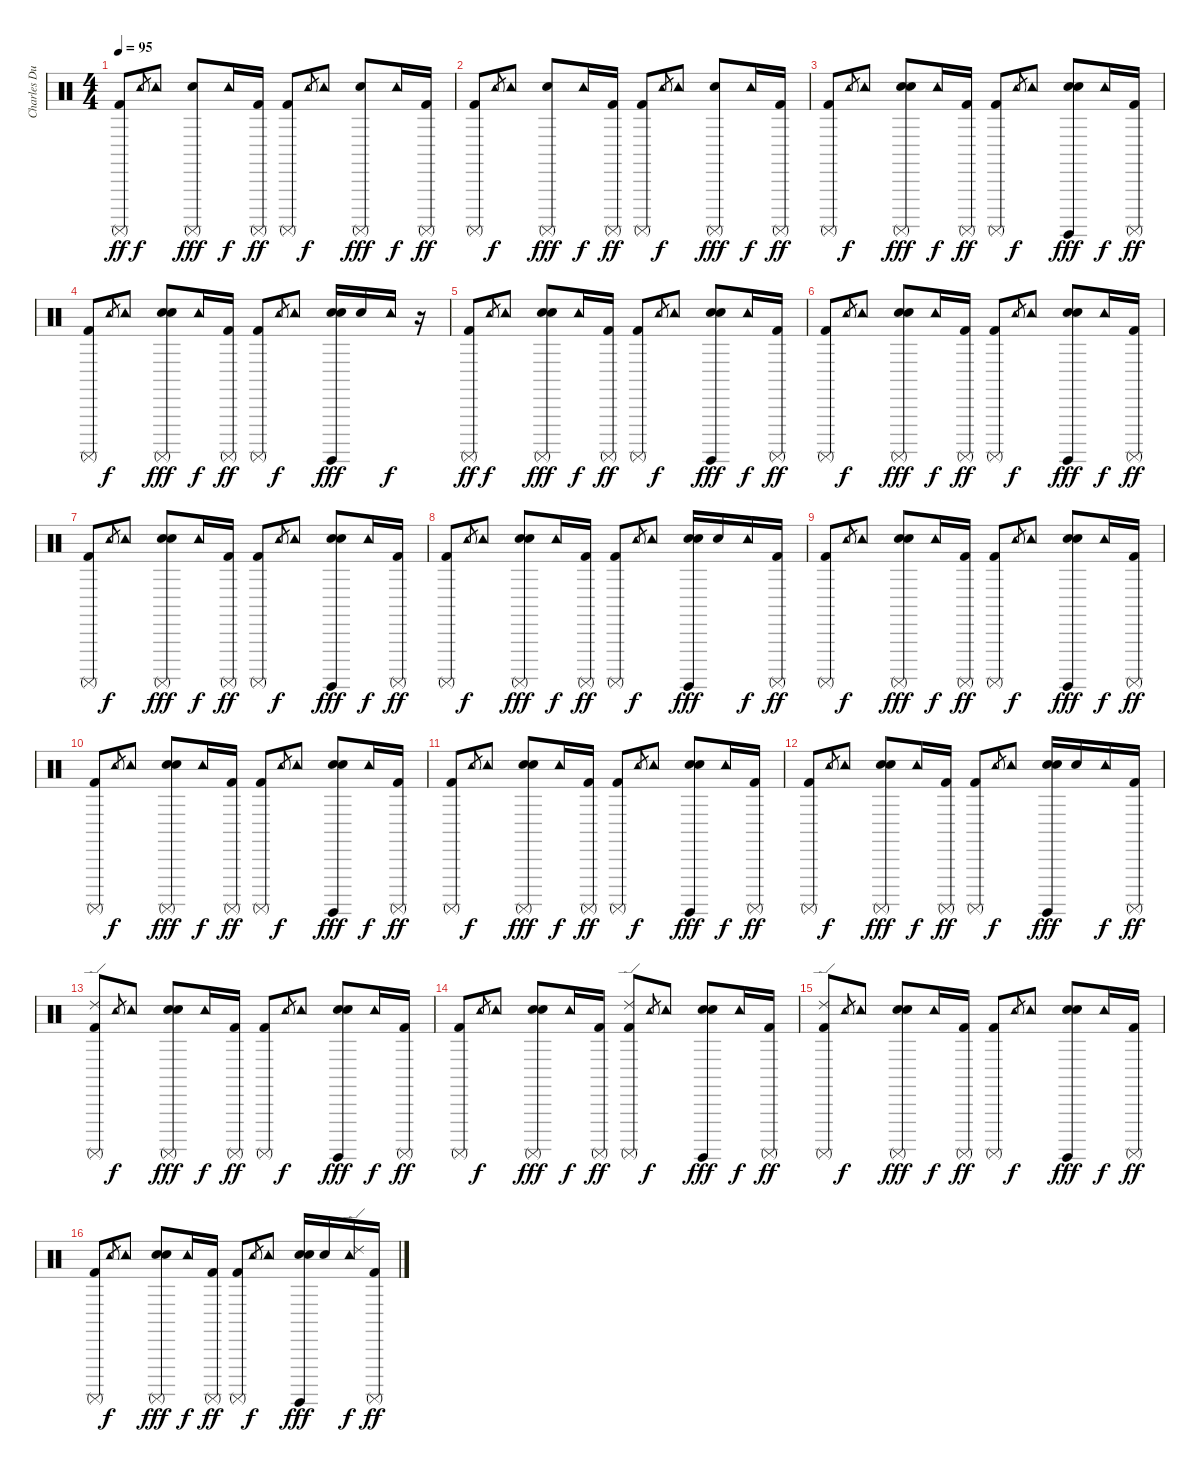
\track ("Charles Dubreuil - Batterie" "Charles Du") {instrument percussion}
\staff {score}
\articulation defaults
\ts (4 4)
\tempo 95
\clef neutral
\ks c
("Surdo (mute)" "Kick (hit) 2").8{dy ff} "Tambourine (hit)".8{gr dy f} "Tambourine (hit)".8 ("Electric Snare (hit)" "Surdo (mute)").8{dy fff} "Tambourine (hit)".16{dy f} ("Surdo (mute)" "Kick (hit) 2").16{dy ff} ("Surdo (mute)" "Kick (hit) 2").8 "Tambourine (hit)".8{gr dy f} "Tambourine (hit)".8 ("Electric Snare (hit)" "Surdo (mute)").8{dy fff} "Tambourine (hit)".16{dy f} ("Surdo (mute)" "Kick (hit) 2").16{dy ff} |
("Surdo (mute)" "Kick (hit) 2").8 "Tambourine (hit)".8{gr dy f} "Tambourine (hit)".8 ("Electric Snare (hit)" "Surdo (mute)").8{dy fff} "Tambourine (hit)".16{dy f} ("Surdo (mute)" "Kick (hit) 2").16{dy ff} ("Surdo (mute)" "Kick (hit) 2").8 "Tambourine (hit)".8{gr dy f} "Tambourine (hit)".8 ("Electric Snare (hit)" "Surdo (mute)").8{dy fff} "Tambourine (hit)".16{dy f} ("Surdo (mute)" "Kick (hit) 2").16{dy ff} |
("Surdo (mute)" "Kick (hit) 2").8 "Tambourine (hit)".8{gr dy f} "Tambourine (hit)".8 ("Hand Clap (hit)" "Electric Snare (hit)" "Surdo (mute)").8{dy fff} "Tambourine (hit)".16{dy f} ("Surdo (mute)" "Kick (hit) 2").16{dy ff} ("Surdo (mute)" "Kick (hit) 2").8 "Tambourine (hit)".8{gr dy f} "Tambourine (hit)".8 ("Hand Clap (hit)" "Electric Snare (hit)" "Surdo (hit)").8{dy fff} "Tambourine (hit)".16{dy f} ("Surdo (mute)" "Kick (hit) 2").16{dy ff} |
("Surdo (mute)" "Kick (hit) 2").8 "Tambourine (hit)".8{gr dy f} "Tambourine (hit)".8 ("Hand Clap (hit)" "Electric Snare (hit)" "Surdo (mute)").8{dy fff} "Tambourine (hit)".16{dy f} ("Surdo (mute)" "Kick (hit) 2").16{dy ff} ("Surdo (mute)" "Kick (hit) 2").8 "Tambourine (hit)".8{gr dy f} "Tambourine (hit)".8 ("Hand Clap (hit)" "Electric Snare (hit)" "Surdo (hit)").16{dy fff} "Electric Snare (hit)".16 "Tambourine (hit)".16{dy f} r.16 |
("Surdo (mute)" "Kick (hit) 2").8{dy ff} "Tambourine (hit)".8{gr dy f} "Tambourine (hit)".8 ("Hand Clap (hit)" "Electric Snare (hit)" "Surdo (mute)").8{dy fff} "Tambourine (hit)".16{dy f} ("Surdo (mute)" "Kick (hit) 2").16{dy ff} ("Surdo (mute)" "Kick (hit) 2").8 "Tambourine (hit)".8{gr dy f} "Tambourine (hit)".8 ("Hand Clap (hit)" "Electric Snare (hit)" "Surdo (hit)").8{dy fff} "Tambourine (hit)".16{dy f} ("Surdo (mute)" "Kick (hit) 2").16{dy ff} |
("Surdo (mute)" "Kick (hit) 2").8 "Tambourine (hit)".8{gr dy f} "Tambourine (hit)".8 ("Hand Clap (hit)" "Electric Snare (hit)" "Surdo (mute)").8{dy fff} "Tambourine (hit)".16{dy f} ("Surdo (mute)" "Kick (hit) 2").16{dy ff} ("Surdo (mute)" "Kick (hit) 2").8 "Tambourine (hit)".8{gr dy f} "Tambourine (hit)".8 ("Hand Clap (hit)" "Electric Snare (hit)" "Surdo (hit)").8{dy fff} "Tambourine (hit)".16{dy f} ("Surdo (mute)" "Kick (hit) 2").16{dy ff} |
("Surdo (mute)" "Kick (hit) 2").8 "Tambourine (hit)".8{gr dy f} "Tambourine (hit)".8 ("Hand Clap (hit)" "Electric Snare (hit)" "Surdo (mute)").8{dy fff} "Tambourine (hit)".16{dy f} ("Surdo (mute)" "Kick (hit) 2").16{dy ff} ("Surdo (mute)" "Kick (hit) 2").8 "Tambourine (hit)".8{gr dy f} "Tambourine (hit)".8 ("Hand Clap (hit)" "Electric Snare (hit)" "Surdo (hit)").8{dy fff} "Tambourine (hit)".16{dy f} ("Surdo (mute)" "Kick (hit) 2").16{dy ff} |
("Surdo (mute)" "Kick (hit) 2").8 "Tambourine (hit)".8{gr dy f} "Tambourine (hit)".8 ("Hand Clap (hit)" "Electric Snare (hit)" "Surdo (mute)").8{dy fff} "Tambourine (hit)".16{dy f} ("Surdo (mute)" "Kick (hit) 2").16{dy ff} ("Surdo (mute)" "Kick (hit) 2").8 "Tambourine (hit)".8{gr dy f} "Tambourine (hit)".8 ("Hand Clap (hit)" "Electric Snare (hit)" "Surdo (hit)").16{dy fff} "Electric Snare (hit)".16 "Tambourine (hit)".16{dy f} ("Surdo (mute)" "Kick (hit) 2").16{dy ff} |
("Surdo (mute)" "Kick (hit) 2").8 "Tambourine (hit)".8{gr dy f} "Tambourine (hit)".8 ("Hand Clap (hit)" "Electric Snare (hit)" "Surdo (mute)").8{dy fff} "Tambourine (hit)".16{dy f} ("Surdo (mute)" "Kick (hit) 2").16{dy ff} ("Surdo (mute)" "Kick (hit) 2").8 "Tambourine (hit)".8{gr dy f} "Tambourine (hit)".8 ("Hand Clap (hit)" "Electric Snare (hit)" "Surdo (hit)").8{dy fff} "Tambourine (hit)".16{dy f} ("Surdo (mute)" "Kick (hit) 2").16{dy ff} |
("Surdo (mute)" "Kick (hit) 2").8 "Tambourine (hit)".8{gr dy f} "Tambourine (hit)".8 ("Hand Clap (hit)" "Electric Snare (hit)" "Surdo (mute)").8{dy fff} "Tambourine (hit)".16{dy f} ("Surdo (mute)" "Kick (hit) 2").16{dy ff} ("Surdo (mute)" "Kick (hit) 2").8 "Tambourine (hit)".8{gr dy f} "Tambourine (hit)".8 ("Hand Clap (hit)" "Electric Snare (hit)" "Surdo (hit)").8{dy fff} "Tambourine (hit)".16{dy f} ("Surdo (mute)" "Kick (hit) 2").16{dy ff} |
("Surdo (mute)" "Kick (hit) 2").8 "Tambourine (hit)".8{gr dy f} "Tambourine (hit)".8 ("Hand Clap (hit)" "Electric Snare (hit)" "Surdo (mute)").8{dy fff} "Tambourine (hit)".16{dy f} ("Surdo (mute)" "Kick (hit) 2").16{dy ff} ("Surdo (mute)" "Kick (hit) 2").8 "Tambourine (hit)".8{gr dy f} "Tambourine (hit)".8 ("Hand Clap (hit)" "Electric Snare (hit)" "Surdo (hit)").8{dy fff} "Tambourine (hit)".16{dy f} ("Surdo (mute)" "Kick (hit) 2").16{dy ff} |
("Surdo (mute)" "Kick (hit) 2").8 "Tambourine (hit)".8{gr dy f} "Tambourine (hit)".8 ("Hand Clap (hit)" "Electric Snare (hit)" "Surdo (mute)").8{dy fff} "Tambourine (hit)".16{dy f} ("Surdo (mute)" "Kick (hit) 2").16{dy ff} ("Surdo (mute)" "Kick (hit) 2").8 "Tambourine (hit)".8{gr dy f} "Tambourine (hit)".8 ("Hand Clap (hit)" "Electric Snare (hit)" "Surdo (hit)").16{dy fff} "Electric Snare (hit)".16 "Tambourine (hit)".16{dy f} ("Surdo (mute)" "Kick (hit) 2").16{dy ff} |
("Ride (edge) 2" "Surdo (mute)" "Kick (hit) 2").8 "Tambourine (hit)".8{gr dy f} "Tambourine (hit)".8 ("Hand Clap (hit)" "Electric Snare (hit)" "Surdo (mute)").8{dy fff} "Tambourine (hit)".16{dy f} ("Surdo (mute)" "Kick (hit) 2").16{dy ff} ("Surdo (mute)" "Kick (hit) 2").8 "Tambourine (hit)".8{gr dy f} "Tambourine (hit)".8 ("Hand Clap (hit)" "Electric Snare (hit)" "Surdo (hit)").8{dy fff} "Tambourine (hit)".16{dy f} ("Surdo (mute)" "Kick (hit) 2").16{dy ff} |
("Surdo (mute)" "Kick (hit) 2").8 "Tambourine (hit)".8{gr dy f} "Tambourine (hit)".8 ("Hand Clap (hit)" "Electric Snare (hit)" "Surdo (mute)").8{dy fff} "Tambourine (hit)".16{dy f} ("Surdo (mute)" "Kick (hit) 2").16{dy ff} ("Ride (edge) 2" "Surdo (mute)" "Kick (hit) 2").8 "Tambourine (hit)".8{gr dy f} "Tambourine (hit)".8 ("Hand Clap (hit)" "Electric Snare (hit)" "Surdo (hit)").8{dy fff} "Tambourine (hit)".16{dy f} ("Surdo (mute)" "Kick (hit) 2").16{dy ff} |
("Ride (edge) 2" "Surdo (mute)" "Kick (hit) 2").8 "Tambourine (hit)".8{gr dy f} "Tambourine (hit)".8 ("Hand Clap (hit)" "Electric Snare (hit)" "Surdo (mute)").8{dy fff} "Tambourine (hit)".16{dy f} ("Surdo (mute)" "Kick (hit) 2").16{dy ff} ("Surdo (mute)" "Kick (hit) 2").8 "Tambourine (hit)".8{gr dy f} "Tambourine (hit)".8 ("Hand Clap (hit)" "Electric Snare (hit)" "Surdo (hit)").8{dy fff} "Tambourine (hit)".16{dy f} ("Surdo (mute)" "Kick (hit) 2").16{dy ff} |
("Surdo (mute)" "Kick (hit) 2").8 "Tambourine (hit)".8{gr dy f} "Tambourine (hit)".8 ("Hand Clap (hit)" "Electric Snare (hit)" "Surdo (mute)").8{dy fff} "Tambourine (hit)".16{dy f} ("Surdo (mute)" "Kick (hit) 2").16{dy ff} ("Surdo (mute)" "Kick (hit) 2").8 "Tambourine (hit)".8{gr dy f} "Tambourine (hit)".8 ("Hand Clap (hit)" "Electric Snare (hit)" "Surdo (hit)").16{dy fff} "Electric Snare (hit)".16 ("Ride (edge) 2" "Tambourine (hit)").16{dy f} ("Surdo (mute)" "Kick (hit) 2").16{dy ff}
